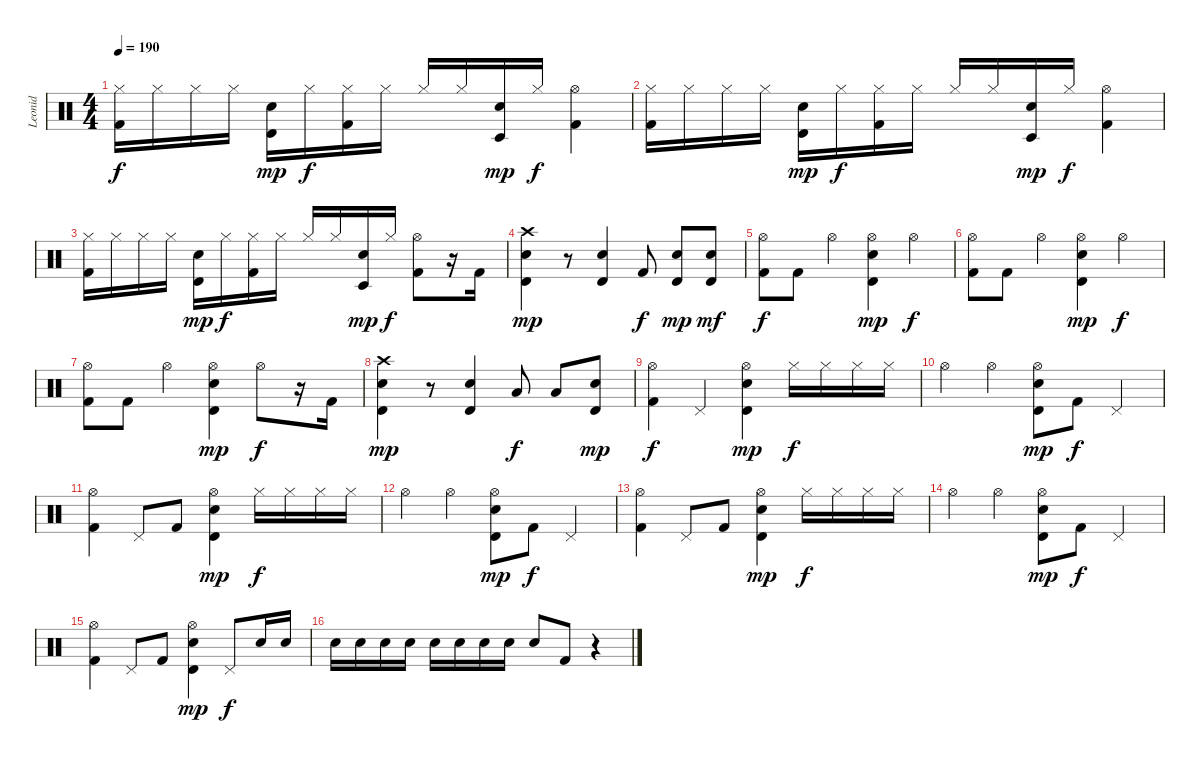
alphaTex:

\track ("Leonid" "Leonid") {instrument percussion}
\staff {score}
\articulation defaults
\ts (4 4)
\tempo 190
\clef neutral
\ks c
("Hi-Hat (closed)" "Kick (hit) 2").16{dy f} "Hi-Hat (closed)".16 "Hi-Hat (closed)".16 "Hi-Hat (closed)".16 ("Timbale high (hit)" "Electric Snare (hit)").16{dy mp} "Hi-Hat (closed)".16{dy f} ("Hi-Hat (closed)" "Kick (hit) 2").16 "Hi-Hat (closed)".16 "Hi-Hat (closed)".16 "Hi-Hat (closed)".16 ("Timbale low (hit)" "Electric Snare (hit)").16{dy mp} "Hi-Hat (closed)".16{dy f} ("Hi-Hat (open)" "Kick (hit) 2").4 |
("Hi-Hat (closed)" "Kick (hit) 2").16 "Hi-Hat (closed)".16 "Hi-Hat (closed)".16 "Hi-Hat (closed)".16 ("Timbale high (hit)" "Electric Snare (hit)").16{dy mp} "Hi-Hat (closed)".16{dy f} ("Hi-Hat (closed)" "Kick (hit) 2").16 "Hi-Hat (closed)".16 "Hi-Hat (closed)".16 "Hi-Hat (closed)".16 ("Timbale low (hit)" "Electric Snare (hit)").16{dy mp} "Hi-Hat (closed)".16{dy f} ("Hi-Hat (open)" "Kick (hit) 2").4 |
("Hi-Hat (closed)" "Kick (hit) 2").16 "Hi-Hat (closed)".16 "Hi-Hat (closed)".16 "Hi-Hat (closed)".16 ("Timbale high (hit)" "Electric Snare (hit)").16{dy mp} "Hi-Hat (closed)".16{dy f} ("Hi-Hat (closed)" "Kick (hit) 2").16 "Hi-Hat (closed)".16 "Hi-Hat (closed)".16 "Hi-Hat (closed)".16 ("Timbale low (hit)" "Electric Snare (hit)").16{dy mp} "Hi-Hat (closed)".16{dy f} ("Hi-Hat (open)" "Kick (hit) 2").8 r.16 "Kick (hit) 2".16 |
("Crash high (hit)" "Timbale high (hit)" "Electric Snare (hit)").4{dy mp} r.8 ("Timbale high (hit)" "Electric Snare (hit)").4 "Kick (hit) 2".8{dy f} ("Timbale high (hit)" "Electric Snare (hit)").8{dy mp} ("Timbale high (hit)" "Electric Snare (hit)").8{dy mf} |
("Hi-Hat (open)" "Kick (hit) 2").8{dy f} "Kick (hit) 2".8 "Hi-Hat (open)".4 ("Hi-Hat (open)" "Timbale high (hit)" "Electric Snare (hit)").4{dy mp} "Hi-Hat (open)".4{dy f} |
("Hi-Hat (open)" "Kick (hit) 2").8 "Kick (hit) 2".8 "Hi-Hat (open)".4 ("Hi-Hat (open)" "Timbale high (hit)" "Electric Snare (hit)").4{dy mp} "Hi-Hat (open)".4{dy f} |
("Hi-Hat (open)" "Kick (hit) 2").8 "Kick (hit) 2".8 "Hi-Hat (open)".4 ("Hi-Hat (open)" "Timbale high (hit)" "Electric Snare (hit)").4{dy mp} "Hi-Hat (open)".8{dy f} r.16 "Kick (hit) 2".16 |
("Crash high (hit)" "Timbale high (hit)" "Electric Snare (hit)").4{dy mp} r.8 ("Timbale high (hit)" "Electric Snare (hit)").4 "Low Tom (hit)".8{dy f} "Low Floor Tom (hit)".8 ("Timbale high (hit)" "Electric Snare (hit)").8{dy mp} |
("Hi-Hat (open)" "Kick (hit) 2").4{dy f} "Pedal Hi-Hat (hit)".4 ("Hi-Hat (open)" "Timbale high (hit)" "Electric Snare (hit)").4{dy mp} "Hi-Hat (closed)".16{dy f} "Hi-Hat (closed)".16 "Hi-Hat (closed)".16 "Hi-Hat (closed)".16 |
"Hi-Hat (open)".4 "Hi-Hat (open)".4 ("Hi-Hat (open)" "Timbale high (hit)" "Electric Snare (hit)").8{dy mp} "Kick (hit) 2".8{dy f} "Pedal Hi-Hat (hit)".4 |
("Hi-Hat (open)" "Kick (hit) 2").4 "Pedal Hi-Hat (hit)".8 "Kick (hit) 2".8 ("Hi-Hat (open)" "Timbale high (hit)" "Electric Snare (hit)").4{dy mp} "Hi-Hat (closed)".16{dy f} "Hi-Hat (closed)".16 "Hi-Hat (closed)".16 "Hi-Hat (closed)".16 |
"Hi-Hat (open)".4 "Hi-Hat (open)".4 ("Hi-Hat (open)" "Timbale high (hit)" "Electric Snare (hit)").8{dy mp} "Kick (hit) 2".8{dy f} "Pedal Hi-Hat (hit)".4 |
("Hi-Hat (open)" "Kick (hit) 2").4 "Pedal Hi-Hat (hit)".8 "Kick (hit) 2".8 ("Hi-Hat (open)" "Timbale high (hit)" "Electric Snare (hit)").4{dy mp} "Hi-Hat (closed)".16{dy f} "Hi-Hat (closed)".16 "Hi-Hat (closed)".16 "Hi-Hat (closed)".16 |
"Hi-Hat (open)".4 "Hi-Hat (open)".4 ("Hi-Hat (open)" "Timbale high (hit)" "Electric Snare (hit)").8{dy mp} "Kick (hit) 2".8{dy f} "Pedal Hi-Hat (hit)".4 |
("Hi-Hat (open)" "Kick (hit) 2").4 "Pedal Hi-Hat (hit)".8 "Kick (hit) 2".8 ("Hi-Hat (open)" "Timbale high (hit)" "Electric Snare (hit)").4{dy mp} "Pedal Hi-Hat (hit)".8{dy f} "Electric Snare (hit)".16 "Electric Snare (hit)".16 |
"Electric Snare (hit)".16 "Electric Snare (hit)".16 "Electric Snare (hit)".16 "Electric Snare (hit)".16 "Electric Snare (hit)".16 "Electric Snare (hit)".16 "Electric Snare (hit)".16 "Electric Snare (hit)".16 "Electric Snare (hit)".8 "Kick (hit) 2".8 r.4
